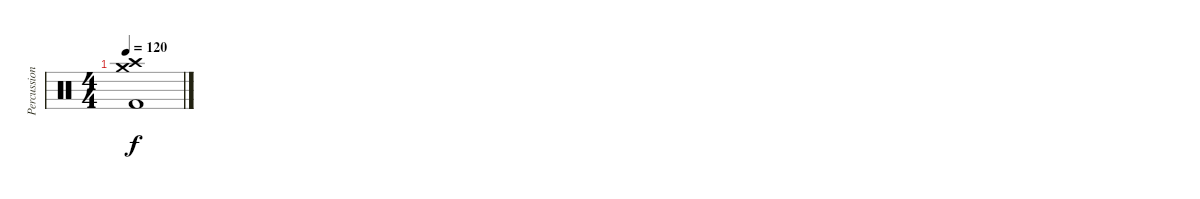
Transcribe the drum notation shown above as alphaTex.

\track ("Percussion" "Percussion") {instrument percussion}
\staff {score}
\articulation defaults
\ts (4 4)
\tempo 120
\clef neutral
\ks c
("Crash high (hit)" "Crash medium (hit)" "Kick (hit) 2").1{dy f}
